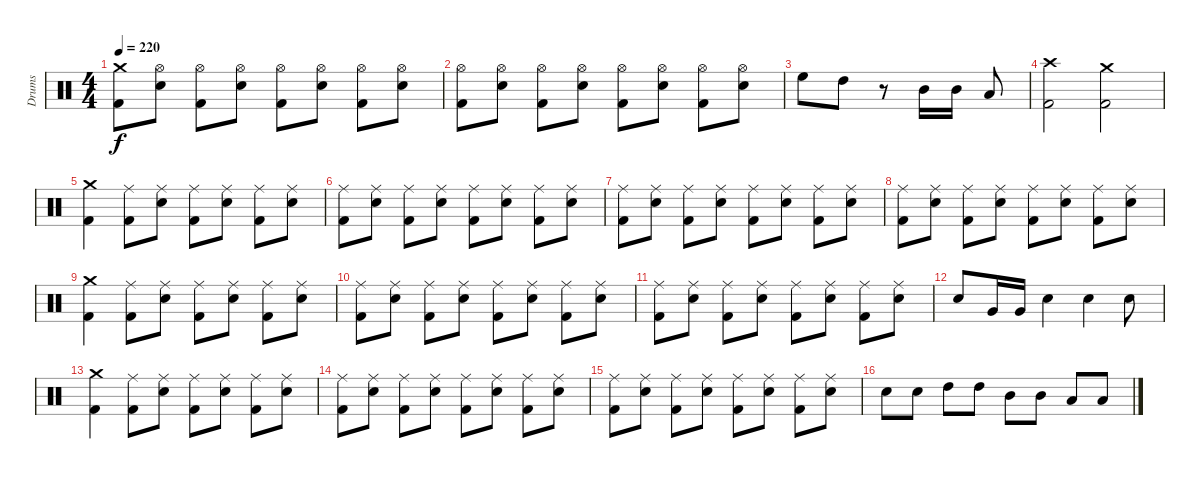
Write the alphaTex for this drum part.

\track ("Drums" "Drums") {instrument percussion}
\staff {score}
\articulation defaults
\ts (4 4)
\tempo 220
\clef neutral
\ks c
("Crash medium (hit)" "Kick (hit) 2").8{dy f} ("Hi-Hat (open)" "Snare (hit) 2").8 ("Hi-Hat (open)" "Kick (hit) 2").8 ("Hi-Hat (open)" "Snare (hit) 2").8 ("Hi-Hat (open)" "Kick (hit) 2").8 ("Hi-Hat (open)" "Snare (hit) 2").8 ("Hi-Hat (open)" "Kick (hit) 2").8 ("Hi-Hat (open)" "Snare (hit) 2").8 |
("Hi-Hat (open)" "Kick (hit) 2").8 ("Hi-Hat (open)" "Snare (hit) 2").8 ("Hi-Hat (open)" "Kick (hit) 2").8 ("Hi-Hat (open)" "Snare (hit) 2").8 ("Hi-Hat (open)" "Kick (hit) 2").8 ("Hi-Hat (open)" "Snare (hit) 2").8 ("Hi-Hat (open)" "Kick (hit) 2").8 ("Hi-Hat (open)" "Snare (hit) 2").8 |
"High Floor Tom (hit)".8 "High Tom (hit)".8 r.8 "Mid Tom (hit)".16 "Mid Tom (hit)".16 "Low Tom (hit)".8 |
("Crash high (hit)" "Kick (hit) 2").2 ("Crash medium (hit)" "Kick (hit) 2").2 |
("Crash medium (hit)" "Kick (hit) 2").4 ("Ride (middle)" "Kick (hit) 2").8 ("Ride (middle)" "Snare (hit) 2").8 ("Ride (middle)" "Kick (hit) 2").8 ("Ride (middle)" "Snare (hit) 2").8 ("Ride (middle)" "Kick (hit) 2").8 ("Ride (middle)" "Snare (hit) 2").8 |
("Ride (middle)" "Kick (hit) 2").8 ("Ride (middle)" "Snare (hit) 2").8 ("Ride (middle)" "Kick (hit) 2").8 ("Ride (middle)" "Snare (hit) 2").8 ("Ride (middle)" "Kick (hit) 2").8 ("Ride (middle)" "Snare (hit) 2").8 ("Ride (middle)" "Kick (hit) 2").8 ("Ride (middle)" "Snare (hit) 2").8 |
("Ride (middle)" "Kick (hit) 2").8 ("Ride (middle)" "Snare (hit) 2").8 ("Ride (middle)" "Kick (hit) 2").8 ("Ride (middle)" "Snare (hit) 2").8 ("Ride (middle)" "Kick (hit) 2").8 ("Ride (middle)" "Snare (hit) 2").8 ("Ride (middle)" "Kick (hit) 2").8 ("Ride (middle)" "Snare (hit) 2").8 |
("Ride (middle)" "Kick (hit) 2").8 ("Ride (middle)" "Snare (hit) 2").8 ("Ride (middle)" "Kick (hit) 2").8 ("Ride (middle)" "Snare (hit) 2").8 ("Ride (middle)" "Kick (hit) 2").8 ("Ride (middle)" "Snare (hit) 2").8 ("Ride (middle)" "Kick (hit) 2").8 ("Ride (middle)" "Snare (hit) 2").8 |
("Crash medium (hit)" "Kick (hit) 2").4 ("Ride (middle)" "Kick (hit) 2").8 ("Ride (middle)" "Snare (hit) 2").8 ("Ride (middle)" "Kick (hit) 2").8 ("Ride (middle)" "Snare (hit) 2").8 ("Ride (middle)" "Kick (hit) 2").8 ("Ride (middle)" "Snare (hit) 2").8 |
("Ride (middle)" "Kick (hit) 2").8 ("Ride (middle)" "Snare (hit) 2").8 ("Ride (middle)" "Kick (hit) 2").8 ("Ride (middle)" "Snare (hit) 2").8 ("Ride (middle)" "Kick (hit) 2").8 ("Ride (middle)" "Snare (hit) 2").8 ("Ride (middle)" "Kick (hit) 2").8 ("Ride (middle)" "Snare (hit) 2").8 |
("Ride (middle)" "Kick (hit) 2").8 ("Ride (middle)" "Snare (hit) 2").8 ("Ride (middle)" "Kick (hit) 2").8 ("Ride (middle)" "Snare (hit) 2").8 ("Ride (middle)" "Kick (hit) 2").8 ("Ride (middle)" "Snare (hit) 2").8 ("Ride (middle)" "Kick (hit) 2").8 ("Ride (middle)" "Snare (hit) 2").8 |
"Snare (hit) 2".8 "Very Low Tom (hit)".16 "Very Low Tom (hit)".16 "Snare (hit) 2".4 "Snare (hit) 2".4 "Snare (hit) 2".8 |
("Crash medium (hit)" "Kick (hit) 2").4 ("Ride (middle)" "Kick (hit) 2").8 ("Ride (middle)" "Snare (hit) 2").8 ("Ride (middle)" "Kick (hit) 2").8 ("Ride (middle)" "Snare (hit) 2").8 ("Ride (middle)" "Kick (hit) 2").8 ("Ride (middle)" "Snare (hit) 2").8 |
("Ride (middle)" "Kick (hit) 2").8 ("Ride (middle)" "Snare (hit) 2").8 ("Ride (middle)" "Kick (hit) 2").8 ("Ride (middle)" "Snare (hit) 2").8 ("Ride (middle)" "Kick (hit) 2").8 ("Ride (middle)" "Snare (hit) 2").8 ("Ride (middle)" "Kick (hit) 2").8 ("Ride (middle)" "Snare (hit) 2").8 |
("Ride (middle)" "Kick (hit) 2").8 ("Ride (middle)" "Snare (hit) 2").8 ("Ride (middle)" "Kick (hit) 2").8 ("Ride (middle)" "Snare (hit) 2").8 ("Ride (middle)" "Kick (hit) 2").8 ("Ride (middle)" "Snare (hit) 2").8 ("Ride (middle)" "Kick (hit) 2").8 ("Ride (middle)" "Snare (hit) 2").8 |
"Snare (hit) 2".8 "Snare (hit) 2".8 "High Tom (hit)".8 "High Tom (hit)".8 "Mid Tom (hit)".8 "Mid Tom (hit)".8 "Low Tom (hit)".8 "Low Tom (hit)".8
